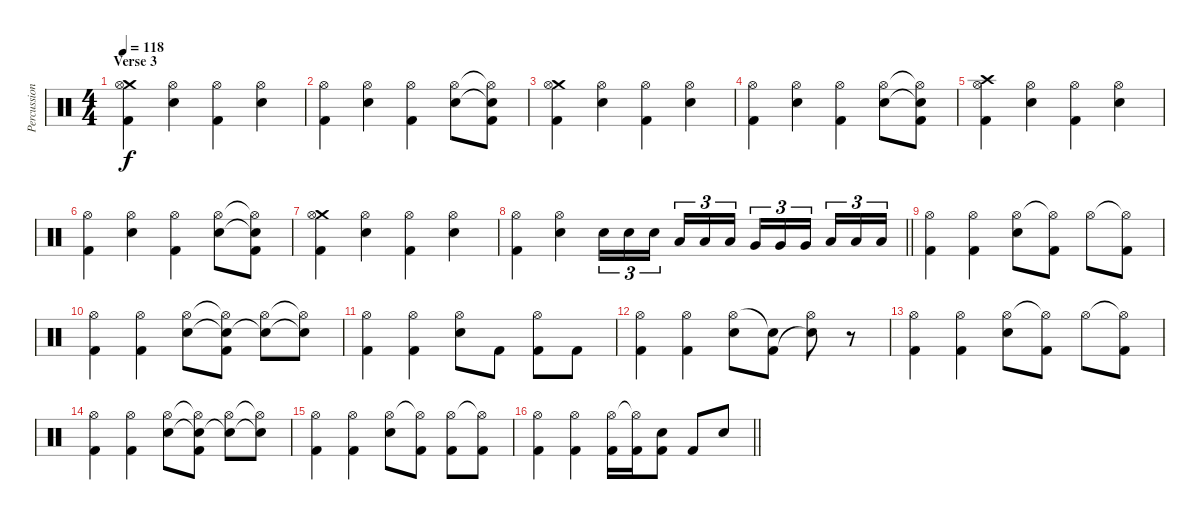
\track ("Percussion" "Percussion") {instrument percussion}
\staff {score}
\articulation defaults
\ts (4 4)
\section ("" "Verse 3")
\tempo 118
\clef neutral
\ks c
("Crash medium (hit)" "Hi-Hat (open)" "Kick (hit) 2").4{dy f} ("Hi-Hat (open)" "Electric Snare (hit)").4 ("Hi-Hat (open)" "Kick (hit) 2").4 ("Hi-Hat (open)" "Electric Snare (hit)").4 |
("Hi-Hat (open)" "Kick (hit) 2").4 ("Hi-Hat (open)" "Electric Snare (hit)").4 ("Hi-Hat (open)" "Kick (hit) 2").4 ("Hi-Hat (open)" "Electric Snare (hit)").8 ("Hi-Hat (open)"{t} "Electric Snare (hit)"{t} "Kick (hit) 2").8 |
("Crash medium (hit)" "Hi-Hat (open)" "Kick (hit) 2").4 ("Hi-Hat (open)" "Electric Snare (hit)").4 ("Hi-Hat (open)" "Kick (hit) 2").4 ("Hi-Hat (open)" "Electric Snare (hit)").4 |
("Hi-Hat (open)" "Kick (hit) 2").4 ("Hi-Hat (open)" "Electric Snare (hit)").4 ("Hi-Hat (open)" "Kick (hit) 2").4 ("Hi-Hat (open)" "Electric Snare (hit)").8 ("Hi-Hat (open)"{t} "Electric Snare (hit)"{t} "Kick (hit) 2").8 |
("Crash high (hit)" "Hi-Hat (open)" "Kick (hit) 2").4 ("Hi-Hat (open)" "Electric Snare (hit)").4 ("Hi-Hat (open)" "Kick (hit) 2").4 ("Hi-Hat (open)" "Electric Snare (hit)").4 |
("Hi-Hat (open)" "Kick (hit) 2").4 ("Hi-Hat (open)" "Electric Snare (hit)").4 ("Hi-Hat (open)" "Kick (hit) 2").4 ("Hi-Hat (open)" "Electric Snare (hit)").8 ("Hi-Hat (open)"{t} "Electric Snare (hit)"{t} "Kick (hit) 2").8 |
("Crash medium (hit)" "Hi-Hat (open)" "Kick (hit) 2").4 ("Hi-Hat (open)" "Electric Snare (hit)").4 ("Hi-Hat (open)" "Kick (hit) 2").4 ("Hi-Hat (open)" "Electric Snare (hit)").4 |
\barLineRight lightlight
("Hi-Hat (open)" "Kick (hit) 2").4 ("Hi-Hat (open)" "Electric Snare (hit)").4 "Electric Snare (hit)".16{tu (3 2)} "Electric Snare (hit)".16{tu (3 2)} "Electric Snare (hit)".16{tu (3 2) beam splitsecondary} "Low Tom (hit)".16{tu (3 2)} "Low Tom (hit)".16{tu (3 2)} "Low Tom (hit)".16{tu (3 2)} "Very Low Tom (hit)".16{tu (3 2)} "Very Low Tom (hit)".16{tu (3 2)} "Very Low Tom (hit)".16{tu (3 2) beam splitsecondary} "Low Floor Tom (hit)".16{tu (3 2)} "Low Floor Tom (hit)".16{tu (3 2)} "Low Floor Tom (hit)".16{tu (3 2)} |
("Hi-Hat (open)" "Kick (hit) 2").4 ("Hi-Hat (open)" "Kick (hit) 2").4 ("Hi-Hat (open)" "Electric Snare (hit)").8 ("Hi-Hat (open)"{t} "Kick (hit) 2").8 "Hi-Hat (open)".8 ("Hi-Hat (open)"{t} "Kick (hit) 2").8 |
("Hi-Hat (open)" "Kick (hit) 2").4 ("Hi-Hat (open)" "Kick (hit) 2").4 ("Hi-Hat (open)" "Electric Snare (hit)").8 ("Hi-Hat (open)"{t} "Electric Snare (hit)"{t} "Kick (hit) 2").8 ("Hi-Hat (open)" "Electric Snare (hit)"{t}).8 ("Hi-Hat (open)"{t} "Electric Snare (hit)"{t}).8 |
("Hi-Hat (open)" "Kick (hit) 2").4 ("Hi-Hat (open)" "Kick (hit) 2").4 ("Hi-Hat (open)" "Electric Snare (hit)").8 "Kick (hit) 2".8 ("Hi-Hat (open)" "Kick (hit) 2").8 "Kick (hit) 2".8 |
("Hi-Hat (open)" "Kick (hit) 2").4 ("Hi-Hat (open)" "Kick (hit) 2").4 ("Hi-Hat (open)" "Electric Snare (hit)").8 ("Electric Snare (hit)"{t} "Kick (hit) 2").8 ("Hi-Hat (open)" "Electric Snare (hit)"{t}).8 r.8 |
("Hi-Hat (open)" "Kick (hit) 2").4 ("Hi-Hat (open)" "Kick (hit) 2").4 ("Hi-Hat (open)" "Electric Snare (hit)").8 ("Hi-Hat (open)"{t} "Kick (hit) 2").8 "Hi-Hat (open)".8 ("Hi-Hat (open)"{t} "Kick (hit) 2").8 |
("Hi-Hat (open)" "Kick (hit) 2").4 ("Hi-Hat (open)" "Kick (hit) 2").4 ("Hi-Hat (open)" "Electric Snare (hit)").8 ("Hi-Hat (open)"{t} "Electric Snare (hit)"{t} "Kick (hit) 2").8 ("Hi-Hat (open)" "Electric Snare (hit)"{t}).8 ("Hi-Hat (open)"{t} "Electric Snare (hit)"{t}).8 |
("Hi-Hat (open)" "Kick (hit) 2").4 ("Hi-Hat (open)" "Kick (hit) 2").4 ("Hi-Hat (open)" "Electric Snare (hit)").8 ("Hi-Hat (open)"{t} "Kick (hit) 2").8 ("Hi-Hat (open)" "Kick (hit) 2").8 ("Hi-Hat (open)"{t} "Kick (hit) 2").8 |
\barLineRight lightlight
("Hi-Hat (open)" "Kick (hit) 2").4 ("Hi-Hat (open)" "Kick (hit) 2").4 ("Hi-Hat (open)" "Kick (hit) 2").16 ("Hi-Hat (open)"{t} "Kick (hit) 2").16 ("Electric Snare (hit)" "Kick (hit) 2").8 "Kick (hit) 2".8 "Electric Snare (hit)".8
